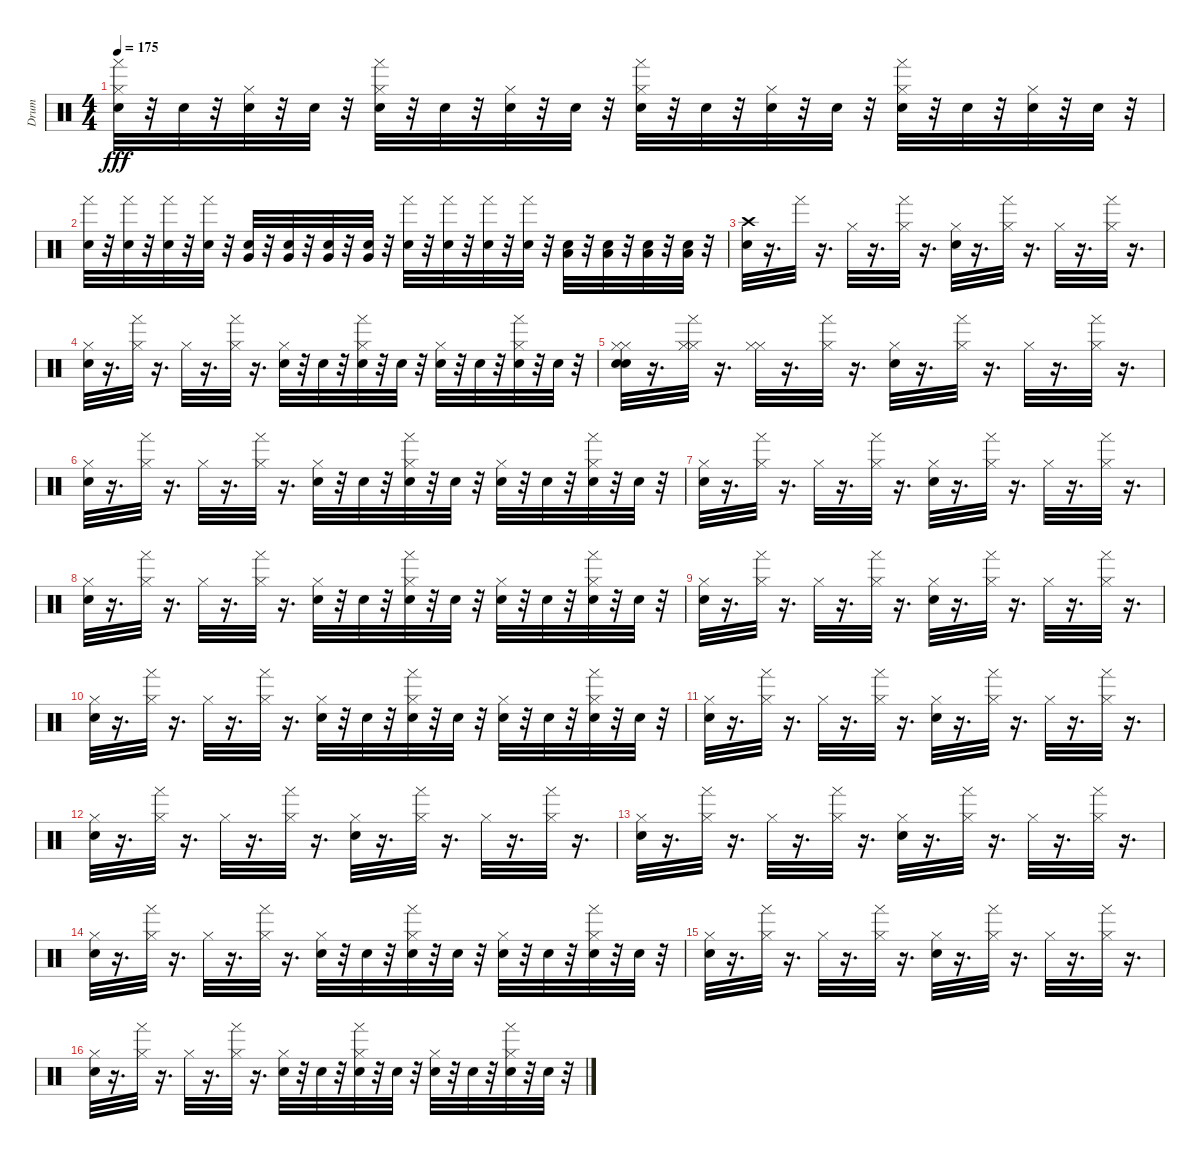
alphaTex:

\track ("Drum" "Drum") {instrument percussion}
\staff {score}
\articulation defaults
\ts (4 4)
\tempo 175
\clef neutral
\ks c
("Hi-Hat (closed)" "Tambourine (hand)" "Snare (hit)").32{dy fff} r.32 "Snare (hit)".32 r.32 ("Hi-Hat (closed)" "Snare (hit)").32 r.32 "Snare (hit)".32 r.32 ("Hi-Hat (closed)" "Tambourine (hand)" "Snare (hit)").32 r.32 "Snare (hit)".32 r.32 ("Hi-Hat (closed)" "Snare (hit)").32 r.32 "Snare (hit)".32 r.32 ("Hi-Hat (closed)" "Tambourine (hand)" "Snare (hit)").32 r.32 "Snare (hit)".32 r.32 ("Hi-Hat (closed)" "Snare (hit)").32 r.32 "Snare (hit)".32 r.32 ("Hi-Hat (closed)" "Tambourine (hand)" "Snare (hit)").32 r.32 "Snare (hit)".32 r.32 ("Hi-Hat (closed)" "Snare (hit)").32 r.32 "Snare (hit)".32 r.32 |
("Tambourine (hand)" "Snare (hit)").32 r.32 ("Tambourine (hand)" "Snare (hit)").32 r.32 ("Tambourine (hand)" "Snare (hit)").32 r.32 ("Tambourine (hand)" "Snare (hit)").32 r.32 ("Snare (hit)" "Very Low Tom (hit)").32 r.32 ("Snare (hit)" "Very Low Tom (hit)").32 r.32 ("Snare (hit)" "Very Low Tom (hit)").32 r.32 ("Snare (hit)" "Very Low Tom (hit)").32 r.32 ("Tambourine (hand)" "Snare (hit)").32 r.32 ("Tambourine (hand)" "Snare (hit)").32 r.32 ("Tambourine (hand)" "Snare (hit)").32 r.32 ("Tambourine (hand)" "Snare (hit)").32 r.32 ("Low Floor Tom (hit)" "Snare (hit)").32 r.32 ("Low Floor Tom (hit)" "Snare (hit)").32 r.32 ("Low Floor Tom (hit)" "Snare (hit)").32 r.32 ("Low Floor Tom (hit)" "Snare (hit)").32 r.32 |
("Crash high (hit)" "Snare (hit)").32 r.16{d} "Tambourine (hand)".32 r.16{d} "Hi-Hat (closed)".32 r.16{d} ("Hi-Hat (closed)" "Tambourine (hand)").32 r.16{d} ("Hi-Hat (closed)" "Snare (hit)").32 r.16{d} ("Hi-Hat (closed)" "Tambourine (hand)").32 r.16{d} "Hi-Hat (closed)".32 r.16{d} ("Hi-Hat (closed)" "Tambourine (hand)").32 r.16{d} |
("Hi-Hat (closed)" "Snare (hit)").32 r.16{d} ("Hi-Hat (closed)" "Tambourine (hand)").32 r.16{d} "Hi-Hat (closed)".32 r.16{d} ("Hi-Hat (closed)" "Tambourine (hand)").32 r.16{d} ("Hi-Hat (closed)" "Snare (hit)").32 r.32 "Snare (hit)".32 r.32 ("Hi-Hat (closed)" "Tambourine (hand)" "Snare (hit)").32 r.32 "Snare (hit)".32 r.32 ("Hi-Hat (closed)" "Snare (hit)").32 r.32 "Snare (hit)".32 r.32 ("Hi-Hat (closed)" "Tambourine (hand)" "Snare (hit)").32 r.32 "Snare (hit)".32 r.32 |
("Hi-Hat (closed)" "Hi-Hat (closed)" "Snare (hit)" "Snare (hit)").32 r.16{d} ("Hi-Hat (closed)" "Hi-Hat (closed)" "Tambourine (hand)").32 r.16{d} ("Hi-Hat (closed)" "Hi-Hat (closed)").32 r.16{d} ("Hi-Hat (closed)" "Tambourine (hand)").32 r.16{d} ("Hi-Hat (closed)" "Snare (hit)").32 r.16{d} ("Hi-Hat (closed)" "Tambourine (hand)").32 r.16{d} "Hi-Hat (closed)".32 r.16{d} ("Hi-Hat (closed)" "Tambourine (hand)").32 r.16{d} |
("Hi-Hat (closed)" "Snare (hit)").32 r.16{d} ("Hi-Hat (closed)" "Tambourine (hand)").32 r.16{d} "Hi-Hat (closed)".32 r.16{d} ("Hi-Hat (closed)" "Tambourine (hand)").32 r.16{d} ("Hi-Hat (closed)" "Snare (hit)").32 r.32 "Snare (hit)".32 r.32 ("Hi-Hat (closed)" "Tambourine (hand)" "Snare (hit)").32 r.32 "Snare (hit)".32 r.32 ("Hi-Hat (closed)" "Snare (hit)").32 r.32 "Snare (hit)".32 r.32 ("Hi-Hat (closed)" "Tambourine (hand)" "Snare (hit)").32 r.32 "Snare (hit)".32 r.32 |
("Hi-Hat (closed)" "Snare (hit)").32 r.16{d} ("Hi-Hat (closed)" "Tambourine (hand)").32 r.16{d} "Hi-Hat (closed)".32 r.16{d} ("Hi-Hat (closed)" "Tambourine (hand)").32 r.16{d} ("Hi-Hat (closed)" "Snare (hit)").32 r.16{d} ("Hi-Hat (closed)" "Tambourine (hand)").32 r.16{d} "Hi-Hat (closed)".32 r.16{d} ("Hi-Hat (closed)" "Tambourine (hand)").32 r.16{d} |
("Hi-Hat (closed)" "Snare (hit)").32 r.16{d} ("Hi-Hat (closed)" "Tambourine (hand)").32 r.16{d} "Hi-Hat (closed)".32 r.16{d} ("Hi-Hat (closed)" "Tambourine (hand)").32 r.16{d} ("Hi-Hat (closed)" "Snare (hit)").32 r.32 "Snare (hit)".32 r.32 ("Hi-Hat (closed)" "Tambourine (hand)" "Snare (hit)").32 r.32 "Snare (hit)".32 r.32 ("Hi-Hat (closed)" "Snare (hit)").32 r.32 "Snare (hit)".32 r.32 ("Hi-Hat (closed)" "Tambourine (hand)" "Snare (hit)").32 r.32 "Snare (hit)".32 r.32 |
("Hi-Hat (closed)" "Snare (hit)").32 r.16{d} ("Hi-Hat (closed)" "Tambourine (hand)").32 r.16{d} "Hi-Hat (closed)".32 r.16{d} ("Hi-Hat (closed)" "Tambourine (hand)").32 r.16{d} ("Hi-Hat (closed)" "Snare (hit)").32 r.16{d} ("Hi-Hat (closed)" "Tambourine (hand)").32 r.16{d} "Hi-Hat (closed)".32 r.16{d} ("Hi-Hat (closed)" "Tambourine (hand)").32 r.16{d} |
("Hi-Hat (closed)" "Snare (hit)").32 r.16{d} ("Hi-Hat (closed)" "Tambourine (hand)").32 r.16{d} "Hi-Hat (closed)".32 r.16{d} ("Hi-Hat (closed)" "Tambourine (hand)").32 r.16{d} ("Hi-Hat (closed)" "Snare (hit)").32 r.32 "Snare (hit)".32 r.32 ("Hi-Hat (closed)" "Tambourine (hand)" "Snare (hit)").32 r.32 "Snare (hit)".32 r.32 ("Hi-Hat (closed)" "Snare (hit)").32 r.32 "Snare (hit)".32 r.32 ("Hi-Hat (closed)" "Tambourine (hand)" "Snare (hit)").32 r.32 "Snare (hit)".32 r.32 |
("Hi-Hat (closed)" "Snare (hit)").32 r.16{d} ("Hi-Hat (closed)" "Tambourine (hand)").32 r.16{d} "Hi-Hat (closed)".32 r.16{d} ("Hi-Hat (closed)" "Tambourine (hand)").32 r.16{d} ("Hi-Hat (closed)" "Snare (hit)").32 r.16{d} ("Hi-Hat (closed)" "Tambourine (hand)").32 r.16{d} "Hi-Hat (closed)".32 r.16{d} ("Hi-Hat (closed)" "Tambourine (hand)").32 r.16{d} |
("Hi-Hat (closed)" "Snare (hit)").32 r.16{d} ("Hi-Hat (closed)" "Tambourine (hand)").32 r.16{d} "Hi-Hat (closed)".32 r.16{d} ("Hi-Hat (closed)" "Tambourine (hand)").32 r.16{d} ("Hi-Hat (closed)" "Snare (hit)").32 r.16{d} ("Hi-Hat (closed)" "Tambourine (hand)").32 r.16{d} "Hi-Hat (closed)".32 r.16{d} ("Hi-Hat (closed)" "Tambourine (hand)").32 r.16{d} |
("Hi-Hat (closed)" "Snare (hit)").32 r.16{d} ("Hi-Hat (closed)" "Tambourine (hand)").32 r.16{d} "Hi-Hat (closed)".32 r.16{d} ("Hi-Hat (closed)" "Tambourine (hand)").32 r.16{d} ("Hi-Hat (closed)" "Snare (hit)").32 r.16{d} ("Hi-Hat (closed)" "Tambourine (hand)").32 r.16{d} "Hi-Hat (closed)".32 r.16{d} ("Hi-Hat (closed)" "Tambourine (hand)").32 r.16{d} |
("Hi-Hat (closed)" "Snare (hit)").32 r.16{d} ("Hi-Hat (closed)" "Tambourine (hand)").32 r.16{d} "Hi-Hat (closed)".32 r.16{d} ("Hi-Hat (closed)" "Tambourine (hand)").32 r.16{d} ("Hi-Hat (closed)" "Snare (hit)").32 r.32 "Snare (hit)".32 r.32 ("Hi-Hat (closed)" "Tambourine (hand)" "Snare (hit)").32 r.32 "Snare (hit)".32 r.32 ("Hi-Hat (closed)" "Snare (hit)").32 r.32 "Snare (hit)".32 r.32 ("Hi-Hat (closed)" "Tambourine (hand)" "Snare (hit)").32 r.32 "Snare (hit)".32 r.32 |
("Hi-Hat (closed)" "Snare (hit)").32 r.16{d} ("Hi-Hat (closed)" "Tambourine (hand)").32 r.16{d} "Hi-Hat (closed)".32 r.16{d} ("Hi-Hat (closed)" "Tambourine (hand)").32 r.16{d} ("Hi-Hat (closed)" "Snare (hit)").32 r.16{d} ("Hi-Hat (closed)" "Tambourine (hand)").32 r.16{d} "Hi-Hat (closed)".32 r.16{d} ("Hi-Hat (closed)" "Tambourine (hand)").32 r.16{d} |
("Hi-Hat (closed)" "Snare (hit)").32 r.16{d} ("Hi-Hat (closed)" "Tambourine (hand)").32 r.16{d} "Hi-Hat (closed)".32 r.16{d} ("Hi-Hat (closed)" "Tambourine (hand)").32 r.16{d} ("Hi-Hat (closed)" "Snare (hit)").32 r.32 "Snare (hit)".32 r.32 ("Hi-Hat (closed)" "Tambourine (hand)" "Snare (hit)").32 r.32 "Snare (hit)".32 r.32 ("Hi-Hat (closed)" "Snare (hit)").32 r.32 "Snare (hit)".32 r.32 ("Hi-Hat (closed)" "Tambourine (hand)" "Snare (hit)").32 r.32 "Snare (hit)".32 r.32
